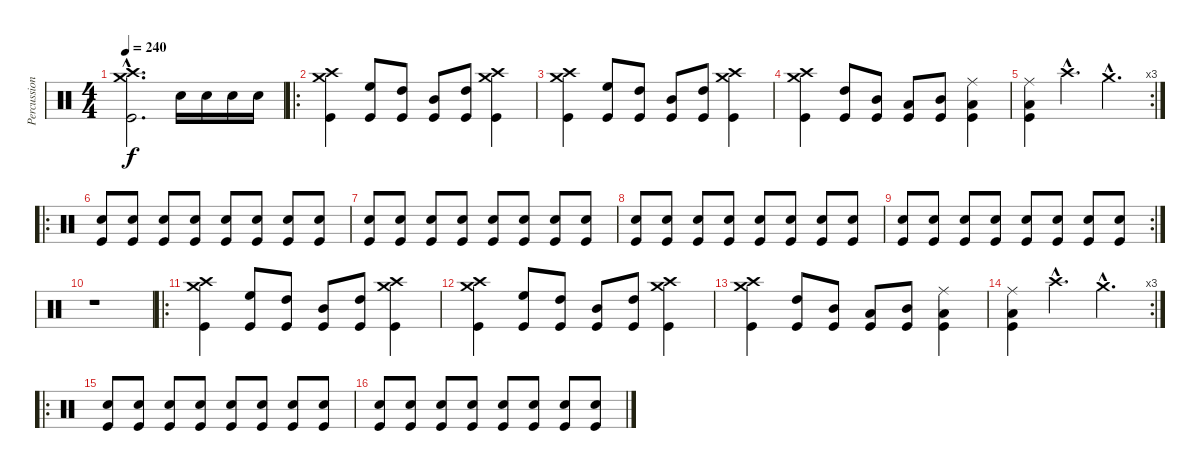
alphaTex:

\track ("Percussion" "Percussion") {instrument percussion}
\staff {score}
\articulation defaults
\ts (4 4)
\tempo 240
\clef neutral
\ks c
("Crash medium (hit)"{hac} "Crash high (hit)"{hac} "Kick (hit)"{hac}).2{d dy f} "Snare (hit) 2".16 "Snare (hit) 2".16 "Snare (hit) 2".16 "Snare (hit) 2".16 |
\ro
("Crash medium (hit)" "Crash high (hit)" "Kick (hit)").4 ("High Floor Tom (hit)" "Kick (hit)").8 ("High Tom (hit)" "Kick (hit)").8 ("Mid Tom (hit)" "Kick (hit)").8 ("High Tom (hit)" "Kick (hit)").8 ("Crash medium (hit)" "Crash high (hit)" "Kick (hit)").4 |
("Crash medium (hit)" "Crash high (hit)" "Kick (hit)").4 ("High Floor Tom (hit)" "Kick (hit)").8 ("High Tom (hit)" "Kick (hit)").8 ("Mid Tom (hit)" "Kick (hit)").8 ("High Tom (hit)" "Kick (hit)").8 ("Crash medium (hit)" "Crash high (hit)" "Kick (hit)").4 |
("Crash medium (hit)" "Crash high (hit)" "Kick (hit)").4 ("High Tom (hit)" "Kick (hit)").8 ("Mid Tom (hit)" "Kick (hit)").8 ("Low Tom (hit)" "Kick (hit)").8 ("Mid Tom (hit)" "Kick (hit)").8 ("Ride (middle)" "Low Tom (hit)" "Kick (hit)").4 |
\rc 3
("Ride (middle)" "Low Tom (hit)" "Kick (hit)").4 "Crash high (hit)"{hac}.4{d} "Crash medium (hit)"{hac}.4{d} |
\ro
("Snare (hit) 2" "Kick (hit)").8{volume 10} ("Snare (hit) 2" "Kick (hit)").8 ("Snare (hit) 2" "Kick (hit)").8 ("Snare (hit) 2" "Kick (hit)").8 ("Snare (hit) 2" "Kick (hit)").8 ("Snare (hit) 2" "Kick (hit)").8 ("Snare (hit) 2" "Kick (hit)").8 ("Snare (hit) 2" "Kick (hit)").8 |
("Snare (hit) 2" "Kick (hit)").8{volume 10} ("Snare (hit) 2" "Kick (hit)").8 ("Snare (hit) 2" "Kick (hit)").8 ("Snare (hit) 2" "Kick (hit)").8 ("Snare (hit) 2" "Kick (hit)").8 ("Snare (hit) 2" "Kick (hit)").8 ("Snare (hit) 2" "Kick (hit)").8 ("Snare (hit) 2" "Kick (hit)").8 |
("Snare (hit) 2" "Kick (hit)").8{volume 10} ("Snare (hit) 2" "Kick (hit)").8 ("Snare (hit) 2" "Kick (hit)").8 ("Snare (hit) 2" "Kick (hit)").8 ("Snare (hit) 2" "Kick (hit)").8 ("Snare (hit) 2" "Kick (hit)").8 ("Snare (hit) 2" "Kick (hit)").8 ("Snare (hit) 2" "Kick (hit)").8 |
\rc 2
("Snare (hit) 2" "Kick (hit)").8{volume 10} ("Snare (hit) 2" "Kick (hit)").8 ("Snare (hit) 2" "Kick (hit)").8 ("Snare (hit) 2" "Kick (hit)").8 ("Snare (hit) 2" "Kick (hit)").8 ("Snare (hit) 2" "Kick (hit)").8 ("Snare (hit) 2" "Kick (hit)").8 ("Snare (hit) 2" "Kick (hit)").8 |
r.1 |
\ro
("Crash medium (hit)" "Crash high (hit)" "Kick (hit)").4 ("High Floor Tom (hit)" "Kick (hit)").8 ("High Tom (hit)" "Kick (hit)").8 ("Mid Tom (hit)" "Kick (hit)").8 ("High Tom (hit)" "Kick (hit)").8 ("Crash medium (hit)" "Crash high (hit)" "Kick (hit)").4 |
("Crash medium (hit)" "Crash high (hit)" "Kick (hit)").4 ("High Floor Tom (hit)" "Kick (hit)").8 ("High Tom (hit)" "Kick (hit)").8 ("Mid Tom (hit)" "Kick (hit)").8 ("High Tom (hit)" "Kick (hit)").8 ("Crash medium (hit)" "Crash high (hit)" "Kick (hit)").4 |
("Crash medium (hit)" "Crash high (hit)" "Kick (hit)").4 ("High Tom (hit)" "Kick (hit)").8 ("Mid Tom (hit)" "Kick (hit)").8 ("Low Tom (hit)" "Kick (hit)").8 ("Mid Tom (hit)" "Kick (hit)").8 ("Ride (middle)" "Low Tom (hit)" "Kick (hit)").4 |
\rc 3
("Ride (middle)" "Low Tom (hit)" "Kick (hit)").4 "Crash high (hit)"{hac}.4{d} "Crash medium (hit)"{hac}.4{d} |
\ro
("Snare (hit) 2" "Kick (hit)").8{volume 10} ("Snare (hit) 2" "Kick (hit)").8 ("Snare (hit) 2" "Kick (hit)").8 ("Snare (hit) 2" "Kick (hit)").8 ("Snare (hit) 2" "Kick (hit)").8 ("Snare (hit) 2" "Kick (hit)").8 ("Snare (hit) 2" "Kick (hit)").8 ("Snare (hit) 2" "Kick (hit)").8 |
("Snare (hit) 2" "Kick (hit)").8{volume 10} ("Snare (hit) 2" "Kick (hit)").8 ("Snare (hit) 2" "Kick (hit)").8 ("Snare (hit) 2" "Kick (hit)").8 ("Snare (hit) 2" "Kick (hit)").8 ("Snare (hit) 2" "Kick (hit)").8 ("Snare (hit) 2" "Kick (hit)").8 ("Snare (hit) 2" "Kick (hit)").8
